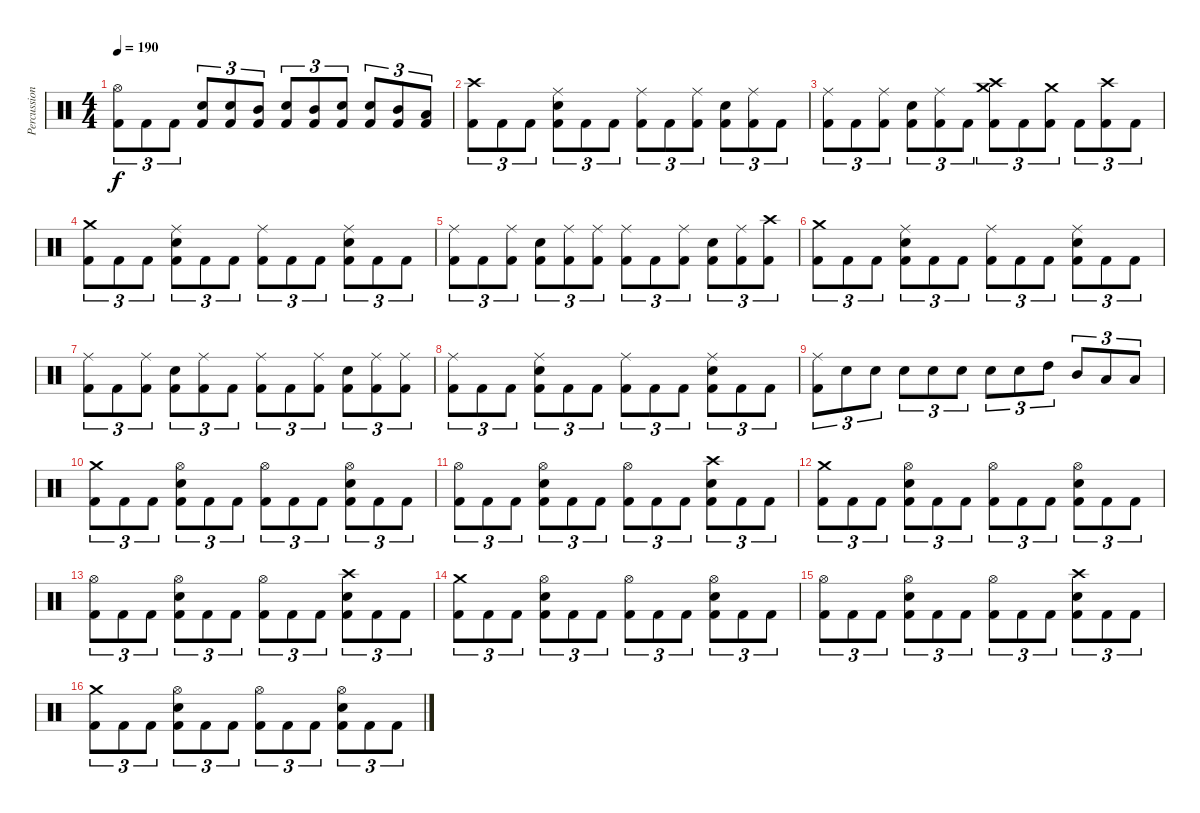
\track ("Percussion" "Percussion") {instrument percussion}
\staff {score}
\articulation defaults
\ts (4 4)
\tempo 190
\clef neutral
\ks c
("Hi-Hat (open)" "Kick (hit) 2").8{tu (3 2) dy f} "Kick (hit) 2".8{tu (3 2)} "Kick (hit) 2".8{tu (3 2)} ("Electric Snare (hit)" "Kick (hit) 2").8{tu (3 2)} ("Electric Snare (hit)" "Kick (hit) 2").8{tu (3 2)} ("Mid Tom (hit)" "Kick (hit) 2").8{tu (3 2)} ("Electric Snare (hit)" "Kick (hit) 2").8{tu (3 2)} ("Mid Tom (hit)" "Kick (hit) 2").8{tu (3 2)} ("Electric Snare (hit)" "Kick (hit) 2").8{tu (3 2)} ("Electric Snare (hit)" "Kick (hit) 2").8{tu (3 2)} ("Mid Tom (hit)" "Kick (hit) 2").8{tu (3 2)} ("Low Tom (hit)" "Kick (hit) 2").8{tu (3 2)} |
("Crash high (hit)" "Kick (hit) 2").8{tu (3 2)} "Kick (hit) 2".8{tu (3 2)} "Kick (hit) 2".8{tu (3 2)} ("Ride (middle)" "Electric Snare (hit)" "Kick (hit) 2").8{tu (3 2)} "Kick (hit) 2".8{tu (3 2)} "Kick (hit) 2".8{tu (3 2)} ("Ride (middle)" "Kick (hit) 2").8{tu (3 2)} "Kick (hit) 2".8{tu (3 2)} ("Ride (middle)" "Kick (hit) 2").8{tu (3 2)} ("Electric Snare (hit)" "Kick (hit) 2").8{tu (3 2)} ("Ride (middle)" "Kick (hit) 2").8{tu (3 2)} "Kick (hit) 2".8{tu (3 2)} |
("Ride (middle)" "Kick (hit) 2").8{tu (3 2)} "Kick (hit) 2".8{tu (3 2)} ("Ride (middle)" "Kick (hit) 2").8{tu (3 2)} ("Electric Snare (hit)" "Kick (hit) 2").8{tu (3 2)} ("Ride (middle)" "Kick (hit) 2").8{tu (3 2)} "Kick (hit) 2".8{tu (3 2)} ("Crash medium (hit)" "Crash high (hit)" "Kick (hit) 2").8{tu (3 2)} "Kick (hit) 2".8{tu (3 2)} ("Crash medium (hit)" "Kick (hit) 2").8{tu (3 2)} "Kick (hit) 2".8{tu (3 2)} ("Crash high (hit)" "Kick (hit) 2").8{tu (3 2)} "Kick (hit) 2".8{tu (3 2)} |
("Crash medium (hit)" "Kick (hit) 2").8{tu (3 2)} "Kick (hit) 2".8{tu (3 2)} "Kick (hit) 2".8{tu (3 2)} ("Ride (middle)" "Electric Snare (hit)" "Kick (hit) 2").8{tu (3 2)} "Kick (hit) 2".8{tu (3 2)} "Kick (hit) 2".8{tu (3 2)} ("Ride (middle)" "Kick (hit) 2").8{tu (3 2)} "Kick (hit) 2".8{tu (3 2)} "Kick (hit) 2".8{tu (3 2)} ("Ride (middle)" "Electric Snare (hit)" "Kick (hit) 2").8{tu (3 2)} "Kick (hit) 2".8{tu (3 2)} "Kick (hit) 2".8{tu (3 2)} |
("Ride (middle)" "Kick (hit) 2").8{tu (3 2)} "Kick (hit) 2".8{tu (3 2)} ("Ride (middle)" "Kick (hit) 2").8{tu (3 2)} ("Electric Snare (hit)" "Kick (hit) 2").8{tu (3 2)} ("Ride (middle)" "Kick (hit) 2").8{tu (3 2)} ("Ride (middle)" "Kick (hit) 2").8{tu (3 2)} ("Ride (middle)" "Kick (hit) 2").8{tu (3 2)} "Kick (hit) 2".8{tu (3 2)} ("Ride (middle)" "Kick (hit) 2").8{tu (3 2)} ("Electric Snare (hit)" "Kick (hit) 2").8{tu (3 2)} ("Ride (middle)" "Kick (hit) 2").8{tu (3 2)} ("Crash high (hit)" "Kick (hit) 2").8{tu (3 2)} |
("Crash medium (hit)" "Kick (hit) 2").8{tu (3 2)} "Kick (hit) 2".8{tu (3 2)} "Kick (hit) 2".8{tu (3 2)} ("Ride (middle)" "Electric Snare (hit)" "Kick (hit) 2").8{tu (3 2)} "Kick (hit) 2".8{tu (3 2)} "Kick (hit) 2".8{tu (3 2)} ("Ride (middle)" "Kick (hit) 2").8{tu (3 2)} "Kick (hit) 2".8{tu (3 2)} "Kick (hit) 2".8{tu (3 2)} ("Ride (middle)" "Electric Snare (hit)" "Kick (hit) 2").8{tu (3 2)} "Kick (hit) 2".8{tu (3 2)} "Kick (hit) 2".8{tu (3 2)} |
("Ride (middle)" "Kick (hit) 2").8{tu (3 2)} "Kick (hit) 2".8{tu (3 2)} ("Ride (middle)" "Kick (hit) 2").8{tu (3 2)} ("Electric Snare (hit)" "Kick (hit) 2").8{tu (3 2)} ("Ride (middle)" "Kick (hit) 2").8{tu (3 2)} "Kick (hit) 2".8{tu (3 2)} ("Ride (middle)" "Kick (hit) 2").8{tu (3 2)} "Kick (hit) 2".8{tu (3 2)} ("Ride (middle)" "Kick (hit) 2").8{tu (3 2)} ("Electric Snare (hit)" "Kick (hit) 2").8{tu (3 2)} ("Ride (middle)" "Kick (hit) 2").8{tu (3 2)} ("Ride (middle)" "Kick (hit) 2").8{tu (3 2)} |
("Ride (middle)" "Kick (hit) 2").8{tu (3 2)} "Kick (hit) 2".8{tu (3 2)} "Kick (hit) 2".8{tu (3 2)} ("Ride (middle)" "Electric Snare (hit)" "Kick (hit) 2").8{tu (3 2)} "Kick (hit) 2".8{tu (3 2)} "Kick (hit) 2".8{tu (3 2)} ("Ride (middle)" "Kick (hit) 2").8{tu (3 2)} "Kick (hit) 2".8{tu (3 2)} "Kick (hit) 2".8{tu (3 2)} ("Ride (middle)" "Electric Snare (hit)" "Kick (hit) 2").8{tu (3 2)} "Kick (hit) 2".8{tu (3 2)} "Kick (hit) 2".8{tu (3 2)} |
("Ride (middle)" "Kick (hit) 2").8{tu (3 2)} "Electric Snare (hit)".8{tu (3 2)} "Electric Snare (hit)".8{tu (3 2)} "Electric Snare (hit)".8{tu (3 2)} "Electric Snare (hit)".8{tu (3 2)} "Electric Snare (hit)".8{tu (3 2)} "Electric Snare (hit)".8{tu (3 2)} "Electric Snare (hit)".8{tu (3 2)} "High Tom (hit)".8{tu (3 2)} "Mid Tom (hit)".8{tu (3 2)} "Low Tom (hit)".8{tu (3 2)} "Low Tom (hit)".8{tu (3 2)} |
("Crash medium (hit)" "Kick (hit) 2").8{tu (3 2)} "Kick (hit) 2".8{tu (3 2)} "Kick (hit) 2".8{tu (3 2)} ("Hi-Hat (open)" "Electric Snare (hit)" "Kick (hit) 2").8{tu (3 2)} "Kick (hit) 2".8{tu (3 2)} "Kick (hit) 2".8{tu (3 2)} ("Hi-Hat (open)" "Kick (hit) 2").8{tu (3 2)} "Kick (hit) 2".8{tu (3 2)} "Kick (hit) 2".8{tu (3 2)} ("Hi-Hat (open)" "Electric Snare (hit)" "Kick (hit) 2").8{tu (3 2)} "Kick (hit) 2".8{tu (3 2)} "Kick (hit) 2".8{tu (3 2)} |
("Hi-Hat (open)" "Kick (hit) 2").8{tu (3 2)} "Kick (hit) 2".8{tu (3 2)} "Kick (hit) 2".8{tu (3 2)} ("Hi-Hat (open)" "Electric Snare (hit)" "Kick (hit) 2").8{tu (3 2)} "Kick (hit) 2".8{tu (3 2)} "Kick (hit) 2".8{tu (3 2)} ("Hi-Hat (open)" "Kick (hit) 2").8{tu (3 2)} "Kick (hit) 2".8{tu (3 2)} "Kick (hit) 2".8{tu (3 2)} ("Crash high (hit)" "Electric Snare (hit)" "Kick (hit) 2").8{tu (3 2)} "Kick (hit) 2".8{tu (3 2)} "Kick (hit) 2".8{tu (3 2)} |
("Crash medium (hit)" "Kick (hit) 2").8{tu (3 2)} "Kick (hit) 2".8{tu (3 2)} "Kick (hit) 2".8{tu (3 2)} ("Hi-Hat (open)" "Electric Snare (hit)" "Kick (hit) 2").8{tu (3 2)} "Kick (hit) 2".8{tu (3 2)} "Kick (hit) 2".8{tu (3 2)} ("Hi-Hat (open)" "Kick (hit) 2").8{tu (3 2)} "Kick (hit) 2".8{tu (3 2)} "Kick (hit) 2".8{tu (3 2)} ("Hi-Hat (open)" "Electric Snare (hit)" "Kick (hit) 2").8{tu (3 2)} "Kick (hit) 2".8{tu (3 2)} "Kick (hit) 2".8{tu (3 2)} |
("Hi-Hat (open)" "Kick (hit) 2").8{tu (3 2)} "Kick (hit) 2".8{tu (3 2)} "Kick (hit) 2".8{tu (3 2)} ("Hi-Hat (open)" "Electric Snare (hit)" "Kick (hit) 2").8{tu (3 2)} "Kick (hit) 2".8{tu (3 2)} "Kick (hit) 2".8{tu (3 2)} ("Hi-Hat (open)" "Kick (hit) 2").8{tu (3 2)} "Kick (hit) 2".8{tu (3 2)} "Kick (hit) 2".8{tu (3 2)} ("Crash high (hit)" "Electric Snare (hit)" "Kick (hit) 2").8{tu (3 2)} "Kick (hit) 2".8{tu (3 2)} "Kick (hit) 2".8{tu (3 2)} |
("Crash medium (hit)" "Kick (hit) 2").8{tu (3 2)} "Kick (hit) 2".8{tu (3 2)} "Kick (hit) 2".8{tu (3 2)} ("Hi-Hat (open)" "Electric Snare (hit)" "Kick (hit) 2").8{tu (3 2)} "Kick (hit) 2".8{tu (3 2)} "Kick (hit) 2".8{tu (3 2)} ("Hi-Hat (open)" "Kick (hit) 2").8{tu (3 2)} "Kick (hit) 2".8{tu (3 2)} "Kick (hit) 2".8{tu (3 2)} ("Hi-Hat (open)" "Electric Snare (hit)" "Kick (hit) 2").8{tu (3 2)} "Kick (hit) 2".8{tu (3 2)} "Kick (hit) 2".8{tu (3 2)} |
("Hi-Hat (open)" "Kick (hit) 2").8{tu (3 2)} "Kick (hit) 2".8{tu (3 2)} "Kick (hit) 2".8{tu (3 2)} ("Hi-Hat (open)" "Electric Snare (hit)" "Kick (hit) 2").8{tu (3 2)} "Kick (hit) 2".8{tu (3 2)} "Kick (hit) 2".8{tu (3 2)} ("Hi-Hat (open)" "Kick (hit) 2").8{tu (3 2)} "Kick (hit) 2".8{tu (3 2)} "Kick (hit) 2".8{tu (3 2)} ("Crash high (hit)" "Electric Snare (hit)" "Kick (hit) 2").8{tu (3 2)} "Kick (hit) 2".8{tu (3 2)} "Kick (hit) 2".8{tu (3 2)} |
("Crash medium (hit)" "Kick (hit) 2").8{tu (3 2)} "Kick (hit) 2".8{tu (3 2)} "Kick (hit) 2".8{tu (3 2)} ("Hi-Hat (open)" "Electric Snare (hit)" "Kick (hit) 2").8{tu (3 2)} "Kick (hit) 2".8{tu (3 2)} "Kick (hit) 2".8{tu (3 2)} ("Hi-Hat (open)" "Kick (hit) 2").8{tu (3 2)} "Kick (hit) 2".8{tu (3 2)} "Kick (hit) 2".8{tu (3 2)} ("Hi-Hat (open)" "Electric Snare (hit)" "Kick (hit) 2").8{tu (3 2)} "Kick (hit) 2".8{tu (3 2)} "Kick (hit) 2".8{tu (3 2)}
